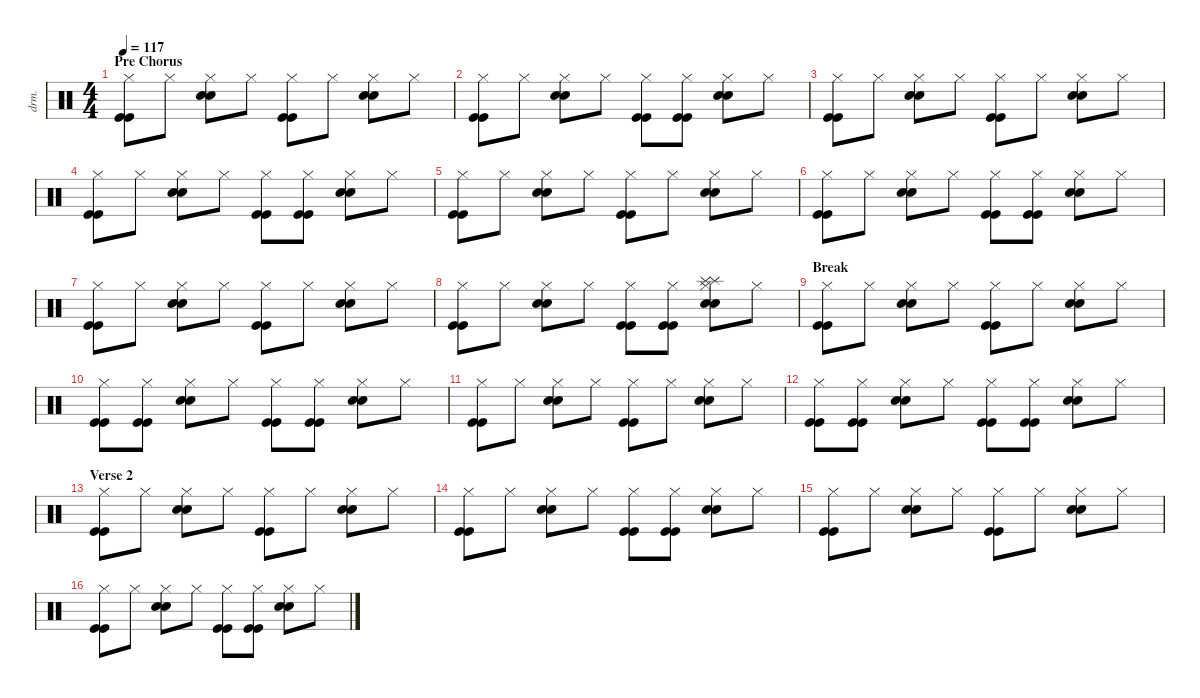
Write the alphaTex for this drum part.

\defaultSystemsLayout 4
\hideDynamics
\bracketExtendMode nobrackets
\otherSystemsTrackNameOrientation horizontal
\track ("Drums" "drm.") {instrument percussion}
\staff {score}
\articulation defaults
\ts (4 4)
\section ("" "Pre Chorus")
\tempo 117
\clef neutral
\ks c
("Kick (hit)" "Kick (hit)" "Hi-Hat (closed)").8{dy f beam Down} "Hi-Hat (closed)".8{beam Down} ("Snare (hit) 2" "Snare (hit) 2" "Hi-Hat (closed)").8{dy mf beam Down} "Hi-Hat (closed)".8{dy f beam Down} ("Kick (hit)" "Kick (hit)" "Hi-Hat (closed)").8{beam Down} "Hi-Hat (closed)".8{beam Down} ("Snare (hit) 2" "Snare (hit) 2" "Hi-Hat (closed)").8{dy mf beam Down} "Hi-Hat (closed)".8{dy f beam Down} |
("Kick (hit)" "Kick (hit)" "Hi-Hat (closed)").8{beam Down} "Hi-Hat (closed)".8{beam Down} ("Snare (hit) 2" "Snare (hit) 2" "Hi-Hat (closed)").8{dy mf beam Down} "Hi-Hat (closed)".8{dy f beam Down} ("Kick (hit)" "Kick (hit)" "Hi-Hat (closed)").8{beam Down} ("Kick (hit)" "Kick (hit)" "Hi-Hat (closed)").8{beam Down} ("Snare (hit) 2" "Snare (hit) 2" "Hi-Hat (closed)").8{dy mf beam Down} "Hi-Hat (closed)".8{dy f beam Down} |
("Kick (hit)" "Kick (hit)" "Hi-Hat (closed)").8{beam Down} "Hi-Hat (closed)".8{beam Down} ("Snare (hit) 2" "Snare (hit) 2" "Hi-Hat (closed)").8{dy mf beam Down} "Hi-Hat (closed)".8{dy f beam Down} ("Kick (hit)" "Kick (hit)" "Hi-Hat (closed)").8{beam Down} "Hi-Hat (closed)".8{beam Down} ("Snare (hit) 2" "Snare (hit) 2" "Hi-Hat (closed)").8{dy mf beam Down} "Hi-Hat (closed)".8{dy f beam Down} |
("Kick (hit)" "Kick (hit)" "Hi-Hat (closed)").8{beam Down} "Hi-Hat (closed)".8{beam Down} ("Snare (hit) 2" "Snare (hit) 2" "Hi-Hat (closed)").8{dy mf beam Down} "Hi-Hat (closed)".8{dy f beam Down} ("Kick (hit)" "Kick (hit)" "Hi-Hat (closed)").8{beam Down} ("Kick (hit)" "Kick (hit)" "Hi-Hat (closed)").8{beam Down} ("Snare (hit) 2" "Snare (hit) 2" "Hi-Hat (closed)").8{dy mf beam Down} "Hi-Hat (closed)".8{dy f beam Down} |
("Kick (hit)" "Kick (hit)" "Hi-Hat (closed)").8{beam Down} "Hi-Hat (closed)".8{beam Down} ("Snare (hit) 2" "Snare (hit) 2" "Hi-Hat (closed)").8{dy mf beam Down} "Hi-Hat (closed)".8{dy f beam Down} ("Kick (hit)" "Kick (hit)" "Hi-Hat (closed)").8{beam Down} "Hi-Hat (closed)".8{beam Down} ("Snare (hit) 2" "Snare (hit) 2" "Hi-Hat (closed)").8{dy mf beam Down} "Hi-Hat (closed)".8{dy f beam Down} |
("Kick (hit)" "Kick (hit)" "Hi-Hat (closed)").8{beam Down} "Hi-Hat (closed)".8{beam Down} ("Snare (hit) 2" "Snare (hit) 2" "Hi-Hat (closed)").8{dy mf beam Down} "Hi-Hat (closed)".8{dy f beam Down} ("Kick (hit)" "Kick (hit)" "Hi-Hat (closed)").8{beam Down} ("Kick (hit)" "Kick (hit)" "Hi-Hat (closed)").8{beam Down} ("Snare (hit) 2" "Snare (hit) 2" "Hi-Hat (closed)").8{dy mf beam Down} "Hi-Hat (closed)".8{dy f beam Down} |
("Kick (hit)" "Kick (hit)" "Hi-Hat (closed)").8{beam Down} "Hi-Hat (closed)".8{beam Down} ("Snare (hit) 2" "Snare (hit) 2" "Hi-Hat (closed)").8{dy mf beam Down} "Hi-Hat (closed)".8{dy f beam Down} ("Kick (hit)" "Kick (hit)" "Hi-Hat (closed)").8{beam Down} "Hi-Hat (closed)".8{beam Down} ("Snare (hit) 2" "Snare (hit) 2" "Hi-Hat (closed)").8{dy mf beam Down} "Hi-Hat (closed)".8{dy f beam Down} |
("Kick (hit)" "Kick (hit)" "Hi-Hat (closed)").8{beam Down} "Hi-Hat (closed)".8{beam Down} ("Snare (hit) 2" "Snare (hit) 2" "Hi-Hat (closed)").8{dy mf beam Down} "Hi-Hat (closed)".8{dy f beam Down} ("Kick (hit)" "Kick (hit)" "Hi-Hat (closed)").8{beam Down} ("Kick (hit)" "Kick (hit)" "Hi-Hat (closed)").8{beam Down} ("Snare (hit) 2" "Snare (hit) 2" "Hi-Hat (closed)" "Splash (hit)" "Splash (hit)").8{dy mf beam Down} "Hi-Hat (closed)".8{dy f beam Down} |
\section ("" "Break")
("Kick (hit)" "Kick (hit)" "Hi-Hat (closed)").8{beam Down} "Hi-Hat (closed)".8{beam Down} ("Snare (hit) 2" "Snare (hit) 2" "Hi-Hat (closed)").8{dy mf beam Down} "Hi-Hat (closed)".8{dy f beam Down} ("Kick (hit)" "Kick (hit)" "Hi-Hat (closed)").8{beam Down} "Hi-Hat (closed)".8{beam Down} ("Snare (hit) 2" "Snare (hit) 2" "Hi-Hat (closed)").8{dy mf beam Down} "Hi-Hat (closed)".8{dy f beam Down} |
("Kick (hit)" "Kick (hit)" "Hi-Hat (closed)").8{beam Down} ("Kick (hit)" "Kick (hit)" "Hi-Hat (closed)").8{beam Down} ("Snare (hit) 2" "Snare (hit) 2" "Hi-Hat (closed)").8{dy mf beam Down} "Hi-Hat (closed)".8{dy f beam Down} ("Kick (hit)" "Kick (hit)" "Hi-Hat (closed)").8{beam Down} ("Kick (hit)" "Kick (hit)" "Hi-Hat (closed)").8{beam Down} ("Snare (hit) 2" "Snare (hit) 2" "Hi-Hat (closed)").8{dy mf beam Down} "Hi-Hat (closed)".8{dy f beam Down} |
("Kick (hit)" "Kick (hit)" "Hi-Hat (closed)").8{beam Down} "Hi-Hat (closed)".8{beam Down} ("Snare (hit) 2" "Snare (hit) 2" "Hi-Hat (closed)").8{dy mf beam Down} "Hi-Hat (closed)".8{dy f beam Down} ("Kick (hit)" "Kick (hit)" "Hi-Hat (closed)").8{beam Down} "Hi-Hat (closed)".8{beam Down} ("Snare (hit) 2" "Snare (hit) 2" "Hi-Hat (closed)").8{dy mf beam Down} "Hi-Hat (closed)".8{dy f beam Down} |
("Kick (hit)" "Kick (hit)" "Hi-Hat (closed)").8{beam Down} ("Kick (hit)" "Kick (hit)" "Hi-Hat (closed)").8{beam Down} ("Snare (hit) 2" "Snare (hit) 2" "Hi-Hat (closed)").8{dy mf beam Down} "Hi-Hat (closed)".8{dy f beam Down} ("Kick (hit)" "Kick (hit)" "Hi-Hat (closed)").8{beam Down} ("Kick (hit)" "Kick (hit)" "Hi-Hat (closed)").8{beam Down} ("Snare (hit) 2" "Snare (hit) 2" "Hi-Hat (closed)").8{dy mf beam Down} "Hi-Hat (closed)".8{dy f beam Down} |
\section ("" "Verse 2")
("Kick (hit)" "Kick (hit)" "Hi-Hat (closed)").8{beam Down} "Hi-Hat (closed)".8{beam Down} ("Snare (hit) 2" "Snare (hit) 2" "Hi-Hat (closed)").8{dy mf beam Down} "Hi-Hat (closed)".8{dy f beam Down} ("Kick (hit)" "Kick (hit)" "Hi-Hat (closed)").8{beam Down} "Hi-Hat (closed)".8{beam Down} ("Snare (hit) 2" "Snare (hit) 2" "Hi-Hat (closed)").8{dy mf beam Down} "Hi-Hat (closed)".8{dy f beam Down} |
("Kick (hit)" "Kick (hit)" "Hi-Hat (closed)").8{beam Down} "Hi-Hat (closed)".8{beam Down} ("Snare (hit) 2" "Snare (hit) 2" "Hi-Hat (closed)").8{dy mf beam Down} "Hi-Hat (closed)".8{dy f beam Down} ("Kick (hit)" "Kick (hit)" "Hi-Hat (closed)").8{beam Down} ("Kick (hit)" "Kick (hit)" "Hi-Hat (closed)").8{beam Down} ("Snare (hit) 2" "Snare (hit) 2" "Hi-Hat (closed)").8{dy mf beam Down} "Hi-Hat (closed)".8{dy f beam Down} |
("Kick (hit)" "Kick (hit)" "Hi-Hat (closed)").8{beam Down} "Hi-Hat (closed)".8{beam Down} ("Snare (hit) 2" "Snare (hit) 2" "Hi-Hat (closed)").8{dy mf beam Down} "Hi-Hat (closed)".8{dy f beam Down} ("Kick (hit)" "Kick (hit)" "Hi-Hat (closed)").8{beam Down} "Hi-Hat (closed)".8{beam Down} ("Snare (hit) 2" "Snare (hit) 2" "Hi-Hat (closed)").8{dy mf beam Down} "Hi-Hat (closed)".8{dy f beam Down} |
("Kick (hit)" "Kick (hit)" "Hi-Hat (closed)").8{beam Down} "Hi-Hat (closed)".8{beam Down} ("Snare (hit) 2" "Snare (hit) 2" "Hi-Hat (closed)").8{dy mf beam Down} "Hi-Hat (closed)".8{dy f beam Down} ("Kick (hit)" "Kick (hit)" "Hi-Hat (closed)").8{beam Down} ("Kick (hit)" "Kick (hit)" "Hi-Hat (closed)").8{beam Down} ("Snare (hit) 2" "Snare (hit) 2" "Hi-Hat (closed)").8{dy mf beam Down} "Hi-Hat (closed)".8{dy f beam Down}
